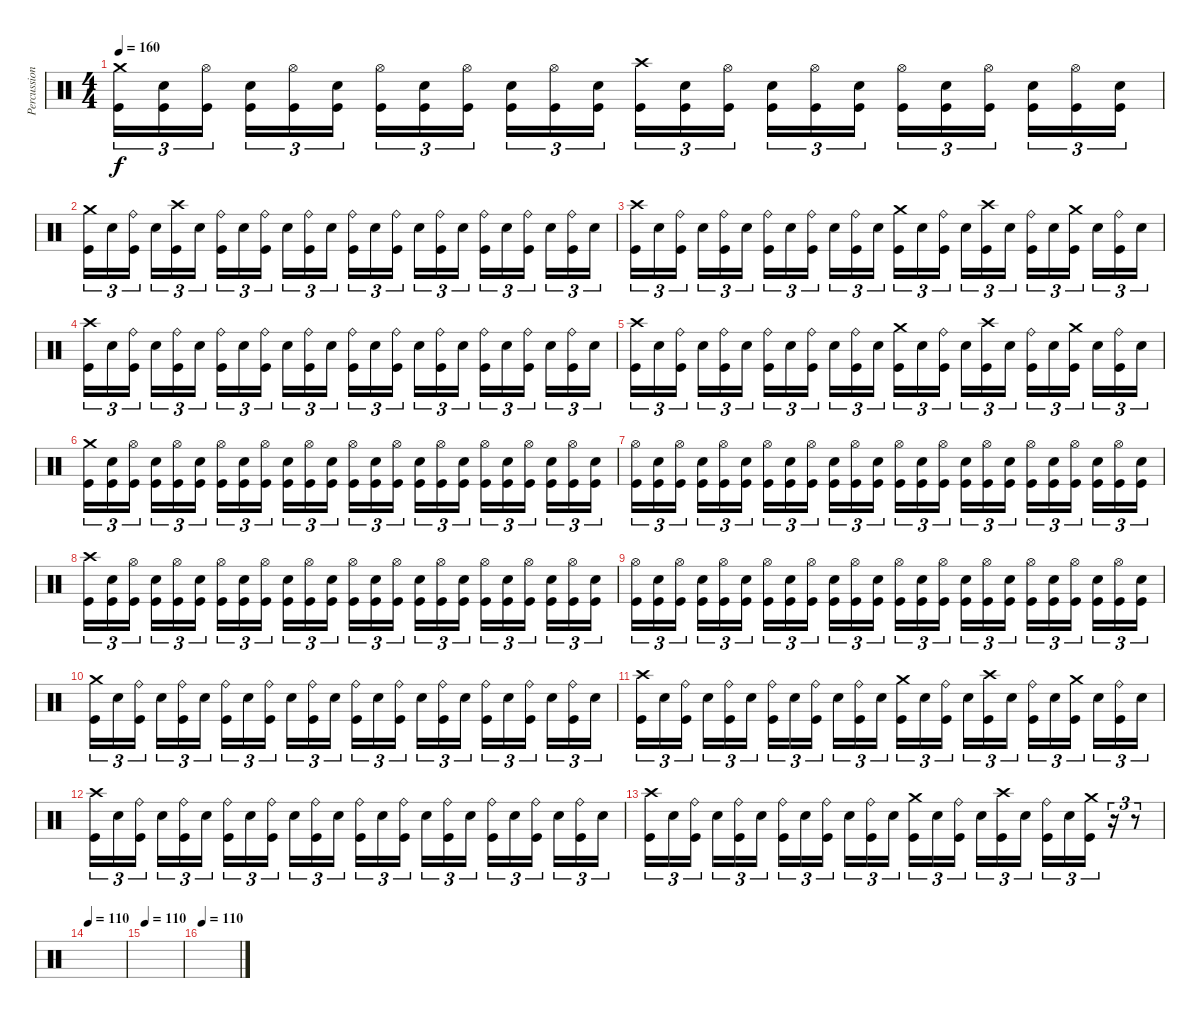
\track ("Percussion" "Percussion") {instrument percussion}
\staff {score}
\articulation defaults
\ts (4 4)
\tempo 160
\clef neutral
\ks c
("Crash medium (hit)" "Kick (hit)").16{tu (3 2) dy f} ("Snare (hit) 2" "Kick (hit)").16{tu (3 2)} ("Hi-Hat (open)" "Kick (hit)").16{tu (3 2) beam splitsecondary} ("Snare (hit) 2" "Kick (hit)").16{tu (3 2)} ("Hi-Hat (open)" "Kick (hit)").16{tu (3 2)} ("Snare (hit) 2" "Kick (hit)").16{tu (3 2)} ("Hi-Hat (open)" "Kick (hit)").16{tu (3 2)} ("Snare (hit) 2" "Kick (hit)").16{tu (3 2)} ("Hi-Hat (open)" "Kick (hit)").16{tu (3 2) beam splitsecondary} ("Snare (hit) 2" "Kick (hit)").16{tu (3 2)} ("Hi-Hat (open)" "Kick (hit)").16{tu (3 2)} ("Snare (hit) 2" "Kick (hit)").16{tu (3 2)} ("Crash high (hit)" "Kick (hit)").16{tu (3 2)} ("Snare (hit) 2" "Kick (hit)").16{tu (3 2)} ("Hi-Hat (open)" "Kick (hit)").16{tu (3 2) beam splitsecondary} ("Snare (hit) 2" "Kick (hit)").16{tu (3 2)} ("Hi-Hat (open)" "Kick (hit)").16{tu (3 2)} ("Snare (hit) 2" "Kick (hit)").16{tu (3 2)} ("Hi-Hat (open)" "Kick (hit)").16{tu (3 2)} ("Snare (hit) 2" "Kick (hit)").16{tu (3 2)} ("Hi-Hat (open)" "Kick (hit)").16{tu (3 2) beam splitsecondary} ("Snare (hit) 2" "Kick (hit)").16{tu (3 2)} ("Hi-Hat (open)" "Kick (hit)").16{tu (3 2)} ("Snare (hit) 2" "Kick (hit)").16{tu (3 2)} |
("Crash medium (hit)" "Kick (hit)").16{tu (3 2)} "Snare (hit) 2".16{tu (3 2)} ("Ride (bell)" "Kick (hit)").16{tu (3 2) beam splitsecondary} "Snare (hit) 2".16{tu (3 2)} ("Crash high (hit)" "Kick (hit)").16{tu (3 2)} "Snare (hit) 2".16{tu (3 2)} ("Ride (bell)" "Kick (hit)").16{tu (3 2)} "Snare (hit) 2".16{tu (3 2)} ("Ride (bell)" "Kick (hit)").16{tu (3 2) beam splitsecondary} "Snare (hit) 2".16{tu (3 2)} ("Ride (bell)" "Kick (hit)").16{tu (3 2)} "Snare (hit) 2".16{tu (3 2)} ("Ride (bell)" "Kick (hit)").16{tu (3 2)} "Snare (hit) 2".16{tu (3 2)} ("Ride (bell)" "Kick (hit)").16{tu (3 2) beam splitsecondary} "Snare (hit) 2".16{tu (3 2)} ("Ride (bell)" "Kick (hit)").16{tu (3 2)} "Snare (hit) 2".16{tu (3 2)} ("Ride (bell)" "Kick (hit)").16{tu (3 2)} "Snare (hit) 2".16{tu (3 2)} ("Ride (bell)" "Kick (hit)").16{tu (3 2) beam splitsecondary} "Snare (hit) 2".16{tu (3 2)} ("Ride (bell)" "Kick (hit)").16{tu (3 2)} "Snare (hit) 2".16{tu (3 2)} |
("Crash high (hit)" "Kick (hit)").16{tu (3 2)} "Snare (hit) 2".16{tu (3 2)} ("Ride (bell)" "Kick (hit)").16{tu (3 2) beam splitsecondary} "Snare (hit) 2".16{tu (3 2)} ("Ride (bell)" "Kick (hit)").16{tu (3 2)} "Snare (hit) 2".16{tu (3 2)} ("Ride (bell)" "Kick (hit)").16{tu (3 2)} "Snare (hit) 2".16{tu (3 2)} ("Ride (bell)" "Kick (hit)").16{tu (3 2) beam splitsecondary} "Snare (hit) 2".16{tu (3 2)} ("Ride (bell)" "Kick (hit)").16{tu (3 2)} "Snare (hit) 2".16{tu (3 2)} ("Crash medium (hit)" "Kick (hit)").16{tu (3 2)} "Snare (hit) 2".16{tu (3 2)} ("Ride (bell)" "Kick (hit)").16{tu (3 2) beam splitsecondary} "Snare (hit) 2".16{tu (3 2)} ("Crash high (hit)" "Kick (hit)").16{tu (3 2)} "Snare (hit) 2".16{tu (3 2)} ("Ride (bell)" "Kick (hit)").16{tu (3 2)} "Snare (hit) 2".16{tu (3 2)} ("Crash medium (hit)" "Kick (hit)").16{tu (3 2) beam splitsecondary} "Snare (hit) 2".16{tu (3 2)} ("Ride (bell)" "Kick (hit)").16{tu (3 2)} "Snare (hit) 2".16{tu (3 2)} |
("Crash high (hit)" "Kick (hit)").16{tu (3 2)} "Snare (hit) 2".16{tu (3 2)} ("Ride (bell)" "Kick (hit)").16{tu (3 2) beam splitsecondary} "Snare (hit) 2".16{tu (3 2)} ("Ride (bell)" "Kick (hit)").16{tu (3 2)} "Snare (hit) 2".16{tu (3 2)} ("Ride (bell)" "Kick (hit)").16{tu (3 2)} "Snare (hit) 2".16{tu (3 2)} ("Ride (bell)" "Kick (hit)").16{tu (3 2) beam splitsecondary} "Snare (hit) 2".16{tu (3 2)} ("Ride (bell)" "Kick (hit)").16{tu (3 2)} "Snare (hit) 2".16{tu (3 2)} ("Ride (bell)" "Kick (hit)").16{tu (3 2)} "Snare (hit) 2".16{tu (3 2)} ("Ride (bell)" "Kick (hit)").16{tu (3 2) beam splitsecondary} "Snare (hit) 2".16{tu (3 2)} ("Ride (bell)" "Kick (hit)").16{tu (3 2)} "Snare (hit) 2".16{tu (3 2)} ("Ride (bell)" "Kick (hit)").16{tu (3 2)} "Snare (hit) 2".16{tu (3 2)} ("Ride (bell)" "Kick (hit)").16{tu (3 2) beam splitsecondary} "Snare (hit) 2".16{tu (3 2)} ("Ride (bell)" "Kick (hit)").16{tu (3 2)} "Snare (hit) 2".16{tu (3 2)} |
("Crash high (hit)" "Kick (hit)").16{tu (3 2)} "Snare (hit) 2".16{tu (3 2)} ("Ride (bell)" "Kick (hit)").16{tu (3 2) beam splitsecondary} "Snare (hit) 2".16{tu (3 2)} ("Ride (bell)" "Kick (hit)").16{tu (3 2)} "Snare (hit) 2".16{tu (3 2)} ("Ride (bell)" "Kick (hit)").16{tu (3 2)} "Snare (hit) 2".16{tu (3 2)} ("Ride (bell)" "Kick (hit)").16{tu (3 2) beam splitsecondary} "Snare (hit) 2".16{tu (3 2)} ("Ride (bell)" "Kick (hit)").16{tu (3 2)} "Snare (hit) 2".16{tu (3 2)} ("Crash medium (hit)" "Kick (hit)").16{tu (3 2)} "Snare (hit) 2".16{tu (3 2)} ("Ride (bell)" "Kick (hit)").16{tu (3 2) beam splitsecondary} "Snare (hit) 2".16{tu (3 2)} ("Crash high (hit)" "Kick (hit)").16{tu (3 2)} "Snare (hit) 2".16{tu (3 2)} ("Ride (bell)" "Kick (hit)").16{tu (3 2)} "Snare (hit) 2".16{tu (3 2)} ("Crash medium (hit)" "Kick (hit)").16{tu (3 2) beam splitsecondary} "Snare (hit) 2".16{tu (3 2)} ("Ride (bell)" "Kick (hit)").16{tu (3 2)} "Snare (hit) 2".16{tu (3 2)} |
("Crash medium (hit)" "Kick (hit)").16{tu (3 2)} ("Snare (hit) 2" "Kick (hit)").16{tu (3 2)} ("Hi-Hat (open)" "Kick (hit)").16{tu (3 2) beam splitsecondary} ("Snare (hit) 2" "Kick (hit)").16{tu (3 2)} ("Hi-Hat (open)" "Kick (hit)").16{tu (3 2)} ("Snare (hit) 2" "Kick (hit)").16{tu (3 2)} ("Hi-Hat (open)" "Kick (hit)").16{tu (3 2)} ("Snare (hit) 2" "Kick (hit)").16{tu (3 2)} ("Hi-Hat (open)" "Kick (hit)").16{tu (3 2) beam splitsecondary} ("Snare (hit) 2" "Kick (hit)").16{tu (3 2)} ("Hi-Hat (open)" "Kick (hit)").16{tu (3 2)} ("Snare (hit) 2" "Kick (hit)").16{tu (3 2)} ("Hi-Hat (open)" "Kick (hit)").16{tu (3 2)} ("Snare (hit) 2" "Kick (hit)").16{tu (3 2)} ("Hi-Hat (open)" "Kick (hit)").16{tu (3 2) beam splitsecondary} ("Snare (hit) 2" "Kick (hit)").16{tu (3 2)} ("Hi-Hat (open)" "Kick (hit)").16{tu (3 2)} ("Snare (hit) 2" "Kick (hit)").16{tu (3 2)} ("Hi-Hat (open)" "Kick (hit)").16{tu (3 2)} ("Snare (hit) 2" "Kick (hit)").16{tu (3 2)} ("Hi-Hat (open)" "Kick (hit)").16{tu (3 2) beam splitsecondary} ("Snare (hit) 2" "Kick (hit)").16{tu (3 2)} ("Hi-Hat (open)" "Kick (hit)").16{tu (3 2)} ("Snare (hit) 2" "Kick (hit)").16{tu (3 2)} |
("Hi-Hat (open)" "Kick (hit)").16{tu (3 2)} ("Snare (hit) 2" "Kick (hit)").16{tu (3 2)} ("Hi-Hat (open)" "Kick (hit)").16{tu (3 2) beam splitsecondary} ("Snare (hit) 2" "Kick (hit)").16{tu (3 2)} ("Hi-Hat (open)" "Kick (hit)").16{tu (3 2)} ("Snare (hit) 2" "Kick (hit)").16{tu (3 2)} ("Hi-Hat (open)" "Kick (hit)").16{tu (3 2)} ("Snare (hit) 2" "Kick (hit)").16{tu (3 2)} ("Hi-Hat (open)" "Kick (hit)").16{tu (3 2) beam splitsecondary} ("Snare (hit) 2" "Kick (hit)").16{tu (3 2)} ("Hi-Hat (open)" "Kick (hit)").16{tu (3 2)} ("Snare (hit) 2" "Kick (hit)").16{tu (3 2)} ("Hi-Hat (open)" "Kick (hit)").16{tu (3 2)} ("Snare (hit) 2" "Kick (hit)").16{tu (3 2)} ("Hi-Hat (open)" "Kick (hit)").16{tu (3 2) beam splitsecondary} ("Snare (hit) 2" "Kick (hit)").16{tu (3 2)} ("Hi-Hat (open)" "Kick (hit)").16{tu (3 2)} ("Snare (hit) 2" "Kick (hit)").16{tu (3 2)} ("Hi-Hat (open)" "Kick (hit)").16{tu (3 2)} ("Snare (hit) 2" "Kick (hit)").16{tu (3 2)} ("Hi-Hat (open)" "Kick (hit)").16{tu (3 2) beam splitsecondary} ("Snare (hit) 2" "Kick (hit)").16{tu (3 2)} ("Hi-Hat (open)" "Kick (hit)").16{tu (3 2)} ("Snare (hit) 2" "Kick (hit)").16{tu (3 2)} |
("Crash high (hit)" "Kick (hit)").16{tu (3 2)} ("Snare (hit) 2" "Kick (hit)").16{tu (3 2)} ("Hi-Hat (open)" "Kick (hit)").16{tu (3 2) beam splitsecondary} ("Snare (hit) 2" "Kick (hit)").16{tu (3 2)} ("Hi-Hat (open)" "Kick (hit)").16{tu (3 2)} ("Snare (hit) 2" "Kick (hit)").16{tu (3 2)} ("Hi-Hat (open)" "Kick (hit)").16{tu (3 2)} ("Snare (hit) 2" "Kick (hit)").16{tu (3 2)} ("Hi-Hat (open)" "Kick (hit)").16{tu (3 2) beam splitsecondary} ("Snare (hit) 2" "Kick (hit)").16{tu (3 2)} ("Hi-Hat (open)" "Kick (hit)").16{tu (3 2)} ("Snare (hit) 2" "Kick (hit)").16{tu (3 2)} ("Hi-Hat (open)" "Kick (hit)").16{tu (3 2)} ("Snare (hit) 2" "Kick (hit)").16{tu (3 2)} ("Hi-Hat (open)" "Kick (hit)").16{tu (3 2) beam splitsecondary} ("Snare (hit) 2" "Kick (hit)").16{tu (3 2)} ("Hi-Hat (open)" "Kick (hit)").16{tu (3 2)} ("Snare (hit) 2" "Kick (hit)").16{tu (3 2)} ("Hi-Hat (open)" "Kick (hit)").16{tu (3 2)} ("Snare (hit) 2" "Kick (hit)").16{tu (3 2)} ("Hi-Hat (open)" "Kick (hit)").16{tu (3 2) beam splitsecondary} ("Snare (hit) 2" "Kick (hit)").16{tu (3 2)} ("Hi-Hat (open)" "Kick (hit)").16{tu (3 2)} ("Snare (hit) 2" "Kick (hit)").16{tu (3 2)} |
("Hi-Hat (open)" "Kick (hit)").16{tu (3 2)} ("Snare (hit) 2" "Kick (hit)").16{tu (3 2)} ("Hi-Hat (open)" "Kick (hit)").16{tu (3 2) beam splitsecondary} ("Snare (hit) 2" "Kick (hit)").16{tu (3 2)} ("Hi-Hat (open)" "Kick (hit)").16{tu (3 2)} ("Snare (hit) 2" "Kick (hit)").16{tu (3 2)} ("Hi-Hat (open)" "Kick (hit)").16{tu (3 2)} ("Snare (hit) 2" "Kick (hit)").16{tu (3 2)} ("Hi-Hat (open)" "Kick (hit)").16{tu (3 2) beam splitsecondary} ("Snare (hit) 2" "Kick (hit)").16{tu (3 2)} ("Hi-Hat (open)" "Kick (hit)").16{tu (3 2)} ("Snare (hit) 2" "Kick (hit)").16{tu (3 2)} ("Hi-Hat (open)" "Kick (hit)").16{tu (3 2)} ("Snare (hit) 2" "Kick (hit)").16{tu (3 2)} ("Hi-Hat (open)" "Kick (hit)").16{tu (3 2) beam splitsecondary} ("Snare (hit) 2" "Kick (hit)").16{tu (3 2)} ("Hi-Hat (open)" "Kick (hit)").16{tu (3 2)} ("Snare (hit) 2" "Kick (hit)").16{tu (3 2)} ("Hi-Hat (open)" "Kick (hit)").16{tu (3 2)} ("Snare (hit) 2" "Kick (hit)").16{tu (3 2)} ("Hi-Hat (open)" "Kick (hit)").16{tu (3 2) beam splitsecondary} ("Snare (hit) 2" "Kick (hit)").16{tu (3 2)} ("Hi-Hat (open)" "Kick (hit)").16{tu (3 2)} ("Snare (hit) 2" "Kick (hit)").16{tu (3 2)} |
("Crash medium (hit)" "Kick (hit)").16{tu (3 2)} "Snare (hit) 2".16{tu (3 2)} ("Ride (bell)" "Kick (hit)").16{tu (3 2) beam splitsecondary} "Snare (hit) 2".16{tu (3 2)} ("Ride (bell)" "Kick (hit)").16{tu (3 2)} "Snare (hit) 2".16{tu (3 2)} ("Ride (bell)" "Kick (hit)").16{tu (3 2)} "Snare (hit) 2".16{tu (3 2)} ("Ride (bell)" "Kick (hit)").16{tu (3 2) beam splitsecondary} "Snare (hit) 2".16{tu (3 2)} ("Ride (bell)" "Kick (hit)").16{tu (3 2)} "Snare (hit) 2".16{tu (3 2)} ("Ride (bell)" "Kick (hit)").16{tu (3 2)} "Snare (hit) 2".16{tu (3 2)} ("Ride (bell)" "Kick (hit)").16{tu (3 2) beam splitsecondary} "Snare (hit) 2".16{tu (3 2)} ("Ride (bell)" "Kick (hit)").16{tu (3 2)} "Snare (hit) 2".16{tu (3 2)} ("Ride (bell)" "Kick (hit)").16{tu (3 2)} "Snare (hit) 2".16{tu (3 2)} ("Ride (bell)" "Kick (hit)").16{tu (3 2) beam splitsecondary} "Snare (hit) 2".16{tu (3 2)} ("Ride (bell)" "Kick (hit)").16{tu (3 2)} "Snare (hit) 2".16{tu (3 2)} |
("Crash high (hit)" "Kick (hit)").16{tu (3 2)} "Snare (hit) 2".16{tu (3 2)} ("Ride (bell)" "Kick (hit)").16{tu (3 2) beam splitsecondary} "Snare (hit) 2".16{tu (3 2)} ("Ride (bell)" "Kick (hit)").16{tu (3 2)} "Snare (hit) 2".16{tu (3 2)} ("Ride (bell)" "Kick (hit)").16{tu (3 2)} "Snare (hit) 2".16{tu (3 2)} ("Ride (bell)" "Kick (hit)").16{tu (3 2) beam splitsecondary} "Snare (hit) 2".16{tu (3 2)} ("Ride (bell)" "Kick (hit)").16{tu (3 2)} "Snare (hit) 2".16{tu (3 2)} ("Crash medium (hit)" "Kick (hit)").16{tu (3 2)} "Snare (hit) 2".16{tu (3 2)} ("Ride (bell)" "Kick (hit)").16{tu (3 2) beam splitsecondary} "Snare (hit) 2".16{tu (3 2)} ("Crash high (hit)" "Kick (hit)").16{tu (3 2)} "Snare (hit) 2".16{tu (3 2)} ("Ride (bell)" "Kick (hit)").16{tu (3 2)} "Snare (hit) 2".16{tu (3 2)} ("Crash medium (hit)" "Kick (hit)").16{tu (3 2) beam splitsecondary} "Snare (hit) 2".16{tu (3 2)} ("Ride (bell)" "Kick (hit)").16{tu (3 2)} "Snare (hit) 2".16{tu (3 2)} |
("Crash high (hit)" "Kick (hit)").16{tu (3 2)} "Snare (hit) 2".16{tu (3 2)} ("Ride (bell)" "Kick (hit)").16{tu (3 2) beam splitsecondary} "Snare (hit) 2".16{tu (3 2)} ("Ride (bell)" "Kick (hit)").16{tu (3 2)} "Snare (hit) 2".16{tu (3 2)} ("Ride (bell)" "Kick (hit)").16{tu (3 2)} "Snare (hit) 2".16{tu (3 2)} ("Ride (bell)" "Kick (hit)").16{tu (3 2) beam splitsecondary} "Snare (hit) 2".16{tu (3 2)} ("Ride (bell)" "Kick (hit)").16{tu (3 2)} "Snare (hit) 2".16{tu (3 2)} ("Ride (bell)" "Kick (hit)").16{tu (3 2)} "Snare (hit) 2".16{tu (3 2)} ("Ride (bell)" "Kick (hit)").16{tu (3 2) beam splitsecondary} "Snare (hit) 2".16{tu (3 2)} ("Ride (bell)" "Kick (hit)").16{tu (3 2)} "Snare (hit) 2".16{tu (3 2)} ("Ride (bell)" "Kick (hit)").16{tu (3 2)} "Snare (hit) 2".16{tu (3 2)} ("Ride (bell)" "Kick (hit)").16{tu (3 2) beam splitsecondary} "Snare (hit) 2".16{tu (3 2)} ("Ride (bell)" "Kick (hit)").16{tu (3 2)} "Snare (hit) 2".16{tu (3 2)} |
("Crash high (hit)" "Kick (hit)").16{tu (3 2)} "Snare (hit) 2".16{tu (3 2)} ("Ride (bell)" "Kick (hit)").16{tu (3 2) beam splitsecondary} "Snare (hit) 2".16{tu (3 2)} ("Ride (bell)" "Kick (hit)").16{tu (3 2)} "Snare (hit) 2".16{tu (3 2)} ("Ride (bell)" "Kick (hit)").16{tu (3 2)} "Snare (hit) 2".16{tu (3 2)} ("Ride (bell)" "Kick (hit)").16{tu (3 2) beam splitsecondary} "Snare (hit) 2".16{tu (3 2)} ("Ride (bell)" "Kick (hit)").16{tu (3 2)} "Snare (hit) 2".16{tu (3 2)} ("Crash medium (hit)" "Kick (hit)").16{tu (3 2)} "Snare (hit) 2".16{tu (3 2)} ("Ride (bell)" "Kick (hit)").16{tu (3 2) beam splitsecondary} "Snare (hit) 2".16{tu (3 2)} ("Crash high (hit)" "Kick (hit)").16{tu (3 2)} "Snare (hit) 2".16{tu (3 2)} ("Ride (bell)" "Kick (hit)").16{tu (3 2)} "Snare (hit) 2".16{tu (3 2)} ("Crash medium (hit)" "Kick (hit)").16{tu (3 2)} r.16{tu (3 2)} r.8{tu (3 2)} |
\tempo 110
|
\tempo 110
|
\tempo 110
